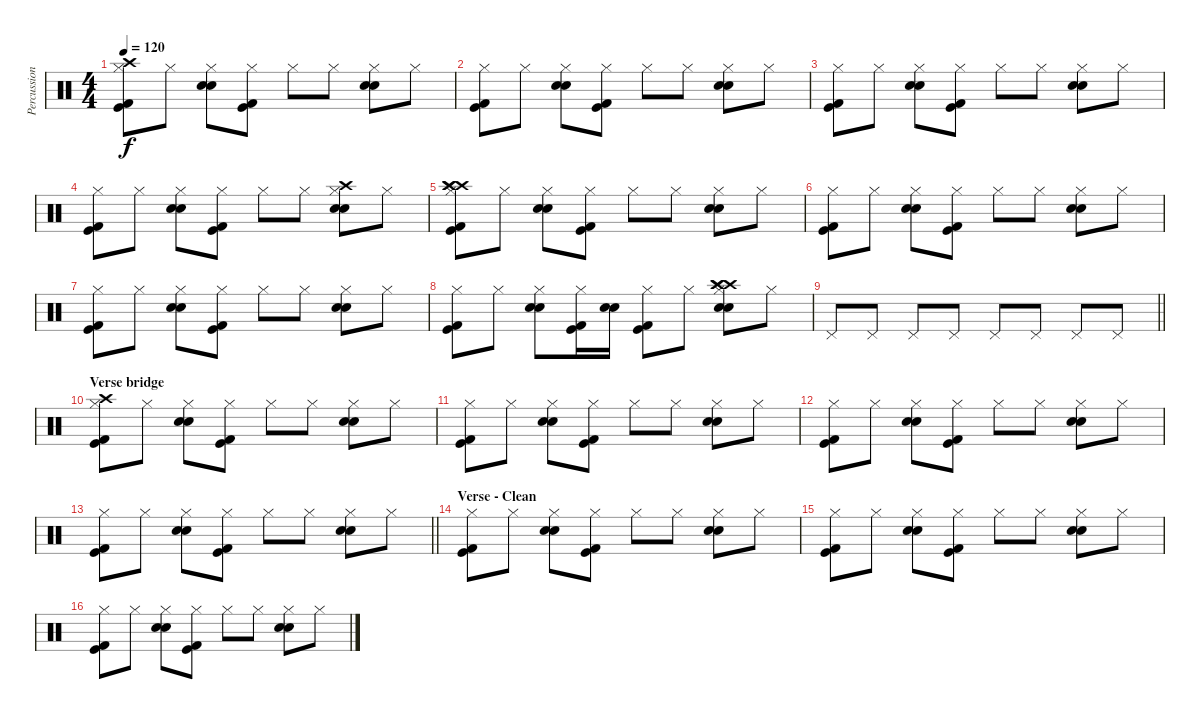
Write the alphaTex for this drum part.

\track ("Percussions" "Percussion") {instrument percussion}
\staff {score}
\articulation defaults
\ts (4 4)
\tempo 120
\clef neutral
\ks c
("Crash high (hit)" "Hi-Hat (closed)" "Kick (hit)" "Kick (hit) 2").8{dy f} "Hi-Hat (closed)".8 ("Hi-Hat (closed)" "Electric Snare (hit)" "Electric Snare (hit)").8 ("Hi-Hat (closed)" "Kick (hit)" "Kick (hit) 2").8 "Hi-Hat (closed)".8 "Hi-Hat (closed)".8 ("Hi-Hat (closed)" "Electric Snare (hit)" "Electric Snare (hit)").8 "Hi-Hat (closed)".8 |
("Hi-Hat (closed)" "Kick (hit)" "Kick (hit) 2").8 "Hi-Hat (closed)".8 ("Hi-Hat (closed)" "Electric Snare (hit)" "Electric Snare (hit)").8 ("Hi-Hat (closed)" "Kick (hit)" "Kick (hit) 2").8 "Hi-Hat (closed)".8 "Hi-Hat (closed)".8 ("Hi-Hat (closed)" "Electric Snare (hit)" "Electric Snare (hit)").8 "Hi-Hat (closed)".8 |
("Hi-Hat (closed)" "Kick (hit)" "Kick (hit) 2").8 "Hi-Hat (closed)".8 ("Hi-Hat (closed)" "Electric Snare (hit)" "Electric Snare (hit)").8 ("Hi-Hat (closed)" "Kick (hit)" "Kick (hit) 2").8 "Hi-Hat (closed)".8 "Hi-Hat (closed)".8 ("Hi-Hat (closed)" "Electric Snare (hit)" "Electric Snare (hit)").8 "Hi-Hat (closed)".8 |
("Hi-Hat (closed)" "Kick (hit)" "Kick (hit) 2").8 "Hi-Hat (closed)".8 ("Hi-Hat (closed)" "Electric Snare (hit)" "Electric Snare (hit)").8 ("Hi-Hat (closed)" "Kick (hit)" "Kick (hit) 2").8 "Hi-Hat (closed)".8 "Hi-Hat (closed)".8 ("Hi-Hat (closed)" "Electric Snare (hit)" "Electric Snare (hit)" "Crash high (hit)").8 "Hi-Hat (closed)".8 |
("Crash high (hit)" "Hi-Hat (closed)" "Crash high (hit)" "Kick (hit)" "Kick (hit) 2" "Crash high (hit)").8 "Hi-Hat (closed)".8 ("Hi-Hat (closed)" "Electric Snare (hit)" "Electric Snare (hit)").8 ("Hi-Hat (closed)" "Kick (hit)" "Kick (hit) 2").8 "Hi-Hat (closed)".8 "Hi-Hat (closed)".8 ("Hi-Hat (closed)" "Electric Snare (hit)" "Electric Snare (hit)").8 "Hi-Hat (closed)".8 |
("Hi-Hat (closed)" "Kick (hit)" "Kick (hit) 2").8 "Hi-Hat (closed)".8 ("Hi-Hat (closed)" "Electric Snare (hit)" "Electric Snare (hit)").8 ("Hi-Hat (closed)" "Kick (hit)" "Kick (hit) 2").8 "Hi-Hat (closed)".8 "Hi-Hat (closed)".8 ("Hi-Hat (closed)" "Electric Snare (hit)" "Electric Snare (hit)").8 "Hi-Hat (closed)".8 |
("Hi-Hat (closed)" "Kick (hit)" "Kick (hit) 2").8 "Hi-Hat (closed)".8 ("Hi-Hat (closed)" "Electric Snare (hit)" "Electric Snare (hit)").8 ("Hi-Hat (closed)" "Kick (hit)" "Kick (hit) 2").8 "Hi-Hat (closed)".8 "Hi-Hat (closed)".8 ("Hi-Hat (closed)" "Electric Snare (hit)" "Electric Snare (hit)").8 "Hi-Hat (closed)".8 |
("Hi-Hat (closed)" "Kick (hit)" "Kick (hit) 2").8 "Hi-Hat (closed)".8 ("Hi-Hat (closed)" "Electric Snare (hit)" "Electric Snare (hit)").8 ("Hi-Hat (closed)" "Kick (hit)" "Kick (hit) 2").16 ("Electric Snare (hit)" "Electric Snare (hit)").16 ("Hi-Hat (closed)" "Kick (hit)" "Kick (hit) 2").8 "Hi-Hat (closed)".8 ("Crash high (hit)" "Hi-Hat (closed)" "Electric Snare (hit)" "Electric Snare (hit)" "Crash high (hit)" "Crash high (hit)").8 "Hi-Hat (closed)".8 |
\barLineRight lightlight "Pedal Hi-Hat (hit)".8 "Pedal Hi-Hat (hit)".8 "Pedal Hi-Hat (hit)".8 "Pedal Hi-Hat (hit)".8 "Pedal Hi-Hat (hit)".8 "Pedal Hi-Hat (hit)".8 "Pedal Hi-Hat (hit)".8 "Pedal Hi-Hat (hit)".8
|
\section ("" "Verse bridge")
("Crash high (hit)" "Hi-Hat (closed)" "Kick (hit)" "Kick (hit) 2").8 "Hi-Hat (closed)".8 ("Hi-Hat (closed)" "Electric Snare (hit)" "Electric Snare (hit)").8 ("Hi-Hat (closed)" "Kick (hit)" "Kick (hit) 2").8 "Hi-Hat (closed)".8 "Hi-Hat (closed)".8 ("Hi-Hat (closed)" "Electric Snare (hit)" "Electric Snare (hit)").8 "Hi-Hat (closed)".8 |
("Hi-Hat (closed)" "Kick (hit)" "Kick (hit) 2").8 "Hi-Hat (closed)".8 ("Hi-Hat (closed)" "Electric Snare (hit)" "Electric Snare (hit)").8 ("Hi-Hat (closed)" "Kick (hit)" "Kick (hit) 2").8 "Hi-Hat (closed)".8 "Hi-Hat (closed)".8 ("Hi-Hat (closed)" "Electric Snare (hit)" "Electric Snare (hit)").8 "Hi-Hat (closed)".8 |
("Hi-Hat (closed)" "Kick (hit)" "Kick (hit) 2").8 "Hi-Hat (closed)".8 ("Hi-Hat (closed)" "Electric Snare (hit)" "Electric Snare (hit)").8 ("Hi-Hat (closed)" "Kick (hit)" "Kick (hit) 2").8 "Hi-Hat (closed)".8 "Hi-Hat (closed)".8 ("Hi-Hat (closed)" "Electric Snare (hit)" "Electric Snare (hit)").8 "Hi-Hat (closed)".8 |
\barLineRight lightlight
("Hi-Hat (closed)" "Kick (hit)" "Kick (hit) 2").8 "Hi-Hat (closed)".8 ("Hi-Hat (closed)" "Electric Snare (hit)" "Electric Snare (hit)").8 ("Hi-Hat (closed)" "Kick (hit)" "Kick (hit) 2").8 "Hi-Hat (closed)".8 "Hi-Hat (closed)".8 ("Hi-Hat (closed)" "Electric Snare (hit)" "Electric Snare (hit)").8 "Hi-Hat (closed)".8 |
\section ("" "Verse - Clean")
("Hi-Hat (closed)" "Kick (hit)" "Kick (hit) 2").8 "Hi-Hat (closed)".8 ("Hi-Hat (closed)" "Electric Snare (hit)" "Electric Snare (hit)").8 ("Hi-Hat (closed)" "Kick (hit)" "Kick (hit) 2").8 "Hi-Hat (closed)".8 "Hi-Hat (closed)".8 ("Hi-Hat (closed)" "Electric Snare (hit)" "Electric Snare (hit)").8 "Hi-Hat (closed)".8 |
("Hi-Hat (closed)" "Kick (hit)" "Kick (hit) 2").8 "Hi-Hat (closed)".8 ("Hi-Hat (closed)" "Electric Snare (hit)" "Electric Snare (hit)").8 ("Hi-Hat (closed)" "Kick (hit)" "Kick (hit) 2").8 "Hi-Hat (closed)".8 "Hi-Hat (closed)".8 ("Hi-Hat (closed)" "Electric Snare (hit)" "Electric Snare (hit)").8 "Hi-Hat (closed)".8 |
("Hi-Hat (closed)" "Kick (hit)" "Kick (hit) 2").8 "Hi-Hat (closed)".8 ("Hi-Hat (closed)" "Electric Snare (hit)" "Electric Snare (hit)").8 ("Hi-Hat (closed)" "Kick (hit)" "Kick (hit) 2").8 "Hi-Hat (closed)".8 "Hi-Hat (closed)".8 ("Hi-Hat (closed)" "Electric Snare (hit)" "Electric Snare (hit)").8 "Hi-Hat (closed)".8
